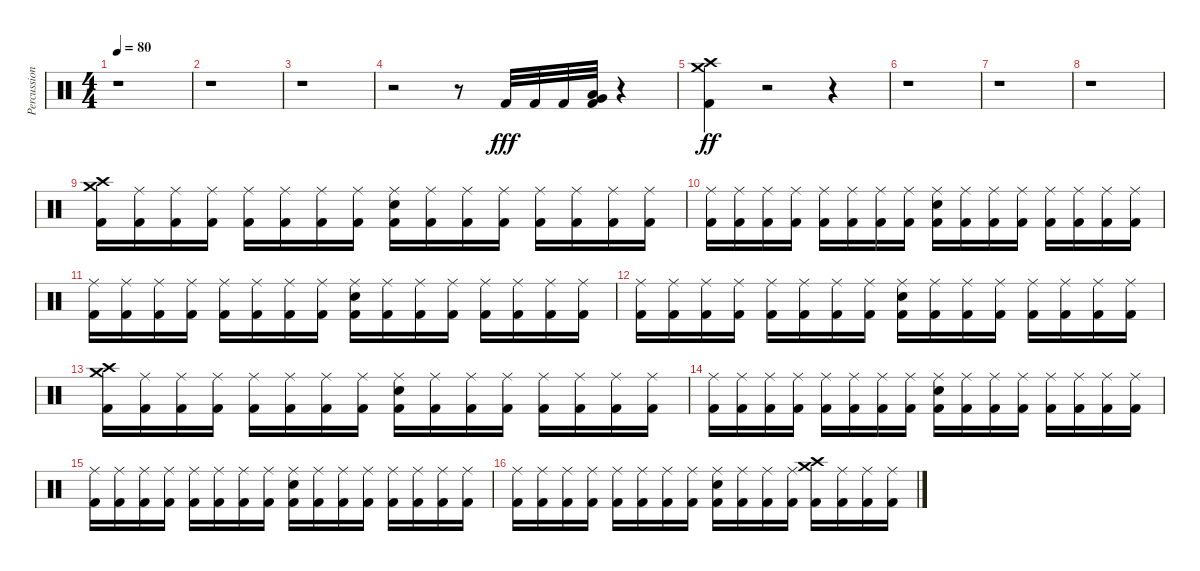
\track ("Percussion" "Percussion") {instrument percussion}
\staff {score}
\articulation defaults
\ts (4 4)
\tempo 80
\clef neutral
\ks c
r.1{dy fff} |
r.1 |
r.1 |
r.2 r.8 "Kick (hit) 2".32 "Kick (hit) 2".32 "Kick (hit) 2".32 ("Kick (hit) 2" "Very Low Tom (hit)" "Low Tom (hit)").32 r.4 |
("Kick (hit) 2" "Crash medium (hit)" "Crash high (hit)").4{dy ff} r.2 r.4 |
r.1 |
r.1 |
r.1 |
("Kick (hit) 2" "Crash medium (hit)" "Crash high (hit)").16 ("Kick (hit) 2" "Ride (middle)").16 ("Kick (hit) 2" "Ride (middle)").16 ("Kick (hit) 2" "Ride (middle)").16 ("Kick (hit) 2" "Ride (middle)").16 ("Kick (hit) 2" "Ride (middle)").16 ("Kick (hit) 2" "Ride (middle)").16 ("Kick (hit) 2" "Ride (middle)").16 ("Kick (hit) 2" "Electric Snare (hit)" "Ride (middle)").16 ("Kick (hit) 2" "Ride (middle)").16 ("Kick (hit) 2" "Ride (middle)").16 ("Kick (hit) 2" "Ride (middle)").16 ("Kick (hit) 2" "Ride (middle)").16 ("Kick (hit) 2" "Ride (middle)").16 ("Kick (hit) 2" "Ride (middle)").16 ("Kick (hit) 2" "Ride (middle)").16 |
("Kick (hit) 2" "Ride (middle)").16 ("Kick (hit) 2" "Ride (middle)").16 ("Kick (hit) 2" "Ride (middle)").16 ("Kick (hit) 2" "Ride (middle)").16 ("Kick (hit) 2" "Ride (middle)").16 ("Kick (hit) 2" "Ride (middle)").16 ("Kick (hit) 2" "Ride (middle)").16 ("Kick (hit) 2" "Ride (middle)").16 ("Kick (hit) 2" "Electric Snare (hit)" "Ride (middle)").16 ("Kick (hit) 2" "Ride (middle)").16 ("Kick (hit) 2" "Ride (middle)").16 ("Kick (hit) 2" "Ride (middle)").16 ("Kick (hit) 2" "Ride (middle)").16 ("Kick (hit) 2" "Ride (middle)").16 ("Kick (hit) 2" "Ride (middle)").16 ("Kick (hit) 2" "Ride (middle)").16 |
("Kick (hit) 2" "Ride (middle)").16 ("Kick (hit) 2" "Ride (middle)").16 ("Kick (hit) 2" "Ride (middle)").16 ("Kick (hit) 2" "Ride (middle)").16 ("Kick (hit) 2" "Ride (middle)").16 ("Kick (hit) 2" "Ride (middle)").16 ("Kick (hit) 2" "Ride (middle)").16 ("Kick (hit) 2" "Ride (middle)").16 ("Kick (hit) 2" "Electric Snare (hit)" "Ride (middle)").16 ("Kick (hit) 2" "Ride (middle)").16 ("Kick (hit) 2" "Ride (middle)").16 ("Kick (hit) 2" "Ride (middle)").16 ("Kick (hit) 2" "Ride (middle)").16 ("Kick (hit) 2" "Ride (middle)").16 ("Kick (hit) 2" "Ride (middle)").16 ("Kick (hit) 2" "Ride (middle)").16 |
("Kick (hit) 2" "Ride (middle)").16 ("Kick (hit) 2" "Ride (middle)").16 ("Kick (hit) 2" "Ride (middle)").16 ("Kick (hit) 2" "Ride (middle)").16 ("Kick (hit) 2" "Ride (middle)").16 ("Kick (hit) 2" "Ride (middle)").16 ("Kick (hit) 2" "Ride (middle)").16 ("Kick (hit) 2" "Ride (middle)").16 ("Kick (hit) 2" "Electric Snare (hit)" "Ride (middle)").16 ("Kick (hit) 2" "Ride (middle)").16 ("Kick (hit) 2" "Ride (middle)").16 ("Kick (hit) 2" "Ride (middle)").16 ("Kick (hit) 2" "Ride (middle)").16 ("Kick (hit) 2" "Ride (middle)").16 ("Kick (hit) 2" "Ride (middle)").16 ("Kick (hit) 2" "Ride (middle)").16 |
("Kick (hit) 2" "Crash medium (hit)" "Crash high (hit)").16 ("Kick (hit) 2" "Ride (middle)").16 ("Kick (hit) 2" "Ride (middle)").16 ("Kick (hit) 2" "Ride (middle)").16 ("Kick (hit) 2" "Ride (middle)").16 ("Kick (hit) 2" "Ride (middle)").16 ("Kick (hit) 2" "Ride (middle)").16 ("Kick (hit) 2" "Ride (middle)").16 ("Kick (hit) 2" "Electric Snare (hit)" "Ride (middle)").16 ("Kick (hit) 2" "Ride (middle)").16 ("Kick (hit) 2" "Ride (middle)").16 ("Kick (hit) 2" "Ride (middle)").16 ("Kick (hit) 2" "Ride (middle)").16 ("Kick (hit) 2" "Ride (middle)").16 ("Kick (hit) 2" "Ride (middle)").16 ("Kick (hit) 2" "Ride (middle)").16 |
("Kick (hit) 2" "Ride (middle)").16 ("Kick (hit) 2" "Ride (middle)").16 ("Kick (hit) 2" "Ride (middle)").16 ("Kick (hit) 2" "Ride (middle)").16 ("Kick (hit) 2" "Ride (middle)").16 ("Kick (hit) 2" "Ride (middle)").16 ("Kick (hit) 2" "Ride (middle)").16 ("Kick (hit) 2" "Ride (middle)").16 ("Kick (hit) 2" "Electric Snare (hit)" "Ride (middle)").16 ("Kick (hit) 2" "Ride (middle)").16 ("Kick (hit) 2" "Ride (middle)").16 ("Kick (hit) 2" "Ride (middle)").16 ("Kick (hit) 2" "Ride (middle)").16 ("Kick (hit) 2" "Ride (middle)").16 ("Kick (hit) 2" "Ride (middle)").16 ("Kick (hit) 2" "Ride (middle)").16 |
("Kick (hit) 2" "Ride (middle)").16 ("Kick (hit) 2" "Ride (middle)").16 ("Kick (hit) 2" "Ride (middle)").16 ("Kick (hit) 2" "Ride (middle)").16 ("Kick (hit) 2" "Ride (middle)").16 ("Kick (hit) 2" "Ride (middle)").16 ("Kick (hit) 2" "Ride (middle)").16 ("Kick (hit) 2" "Ride (middle)").16 ("Kick (hit) 2" "Electric Snare (hit)" "Ride (middle)").16 ("Kick (hit) 2" "Ride (middle)").16 ("Kick (hit) 2" "Ride (middle)").16 ("Kick (hit) 2" "Ride (middle)").16 ("Kick (hit) 2" "Ride (middle)").16 ("Kick (hit) 2" "Ride (middle)").16 ("Kick (hit) 2" "Ride (middle)").16 ("Kick (hit) 2" "Ride (middle)").16 |
("Kick (hit) 2" "Ride (middle)").16 ("Kick (hit) 2" "Ride (middle)").16 ("Kick (hit) 2" "Ride (middle)").16 ("Kick (hit) 2" "Ride (middle)").16 ("Kick (hit) 2" "Ride (middle)").16 ("Kick (hit) 2" "Ride (middle)").16 ("Kick (hit) 2" "Ride (middle)").16 ("Kick (hit) 2" "Ride (middle)").16 ("Kick (hit) 2" "Electric Snare (hit)" "Ride (middle)").16 ("Kick (hit) 2" "Ride (middle)").16 ("Kick (hit) 2" "Ride (middle)").16 ("Kick (hit) 2" "Ride (middle)").16 ("Kick (hit) 2" "Crash high (hit)" "Crash medium (hit)").16 ("Kick (hit) 2" "Ride (middle)").16 ("Kick (hit) 2" "Ride (middle)").16 ("Kick (hit) 2" "Ride (middle)").16
